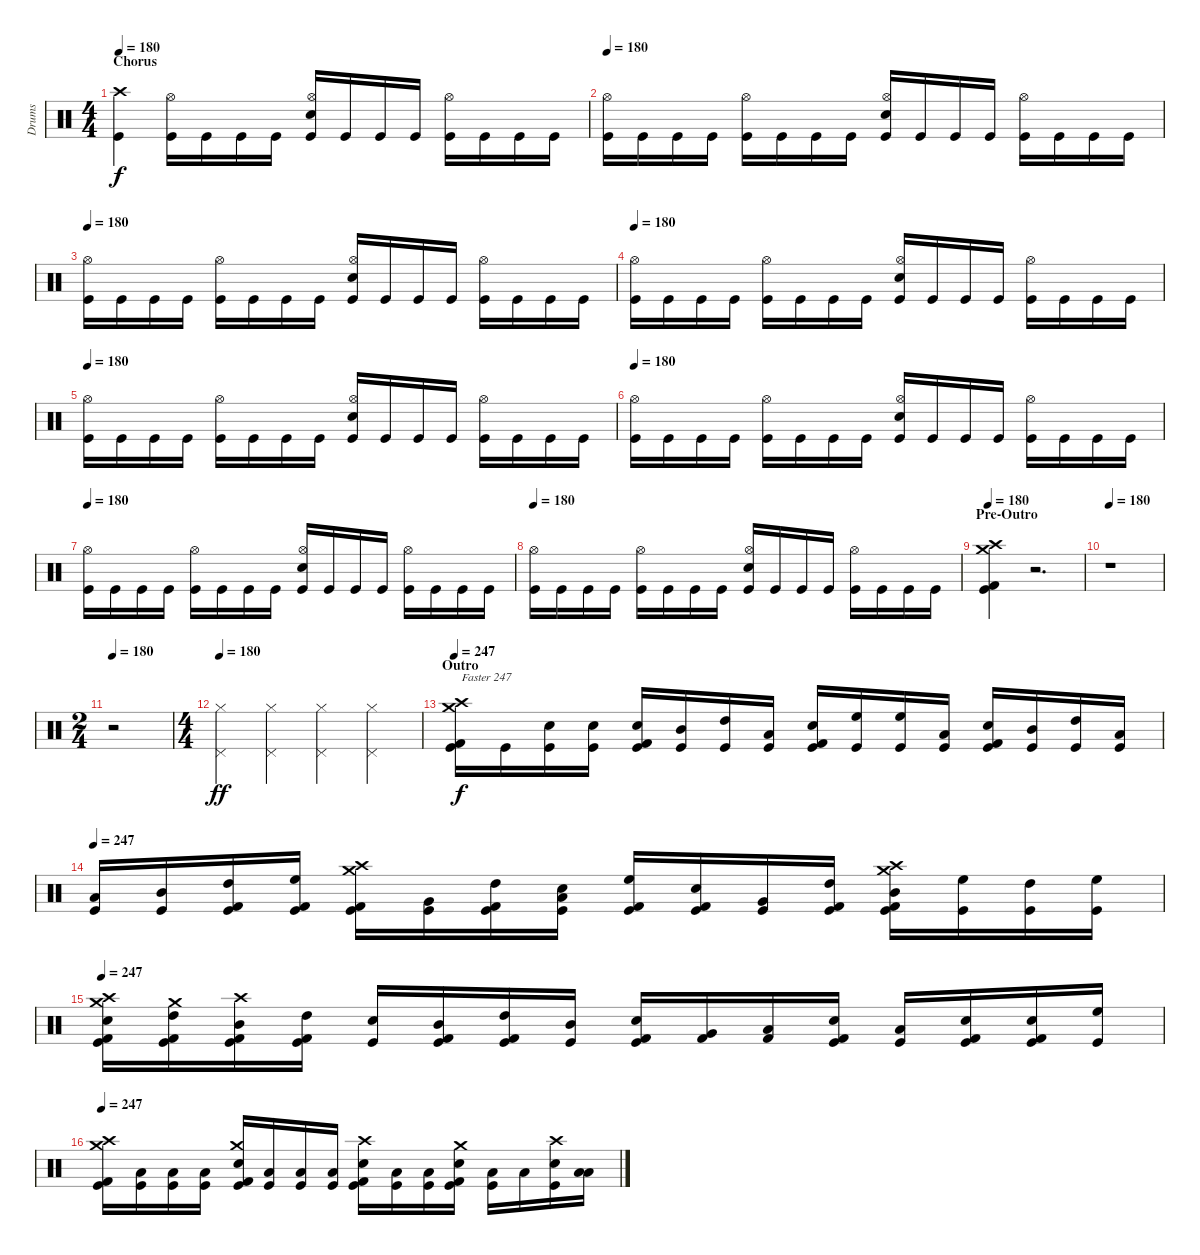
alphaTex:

\track ("Drums" "Drums") {instrument percussion}
\staff {score}
\articulation defaults
\ts (4 4)
\section ("" "Chorus")
\tempo 180
\clef neutral
\ks c
("Crash high (hit)" "Kick (hit)").4{dy f} ("Hi-Hat (open)" "Kick (hit)").16 "Kick (hit)".16 "Kick (hit)".16 "Kick (hit)".16 ("Hi-Hat (open)" "Snare (hit) 2" "Kick (hit)").16 "Kick (hit)".16 "Kick (hit)".16 "Kick (hit)".16 ("Hi-Hat (open)" "Kick (hit)").16 "Kick (hit)".16 "Kick (hit)".16 "Kick (hit)".16 |
\tempo 180
("Hi-Hat (open)" "Kick (hit)").16 "Kick (hit)".16 "Kick (hit)".16 "Kick (hit)".16 ("Hi-Hat (open)" "Kick (hit)").16 "Kick (hit)".16 "Kick (hit)".16 "Kick (hit)".16 ("Hi-Hat (open)" "Snare (hit) 2" "Kick (hit)").16 "Kick (hit)".16 "Kick (hit)".16 "Kick (hit)".16 ("Hi-Hat (open)" "Kick (hit)").16 "Kick (hit)".16 "Kick (hit)".16 "Kick (hit)".16 |
\tempo 180
("Hi-Hat (open)" "Kick (hit)").16 "Kick (hit)".16 "Kick (hit)".16 "Kick (hit)".16 ("Hi-Hat (open)" "Kick (hit)").16 "Kick (hit)".16 "Kick (hit)".16 "Kick (hit)".16 ("Hi-Hat (open)" "Snare (hit) 2" "Kick (hit)").16 "Kick (hit)".16 "Kick (hit)".16 "Kick (hit)".16 ("Hi-Hat (open)" "Kick (hit)").16 "Kick (hit)".16 "Kick (hit)".16 "Kick (hit)".16 |
\tempo 180
("Hi-Hat (open)" "Kick (hit)").16 "Kick (hit)".16 "Kick (hit)".16 "Kick (hit)".16 ("Hi-Hat (open)" "Kick (hit)").16 "Kick (hit)".16 "Kick (hit)".16 "Kick (hit)".16 ("Hi-Hat (open)" "Snare (hit) 2" "Kick (hit)").16 "Kick (hit)".16 "Kick (hit)".16 "Kick (hit)".16 ("Hi-Hat (open)" "Kick (hit)").16 "Kick (hit)".16 "Kick (hit)".16 "Kick (hit)".16 |
\tempo 180
("Hi-Hat (open)" "Kick (hit)").16 "Kick (hit)".16 "Kick (hit)".16 "Kick (hit)".16 ("Hi-Hat (open)" "Kick (hit)").16 "Kick (hit)".16 "Kick (hit)".16 "Kick (hit)".16 ("Hi-Hat (open)" "Snare (hit) 2" "Kick (hit)").16 "Kick (hit)".16 "Kick (hit)".16 "Kick (hit)".16 ("Hi-Hat (open)" "Kick (hit)").16 "Kick (hit)".16 "Kick (hit)".16 "Kick (hit)".16 |
\tempo 180
("Hi-Hat (open)" "Kick (hit)").16 "Kick (hit)".16 "Kick (hit)".16 "Kick (hit)".16 ("Hi-Hat (open)" "Kick (hit)").16 "Kick (hit)".16 "Kick (hit)".16 "Kick (hit)".16 ("Hi-Hat (open)" "Snare (hit) 2" "Kick (hit)").16 "Kick (hit)".16 "Kick (hit)".16 "Kick (hit)".16 ("Hi-Hat (open)" "Kick (hit)").16 "Kick (hit)".16 "Kick (hit)".16 "Kick (hit)".16 |
\tempo 180
("Hi-Hat (open)" "Kick (hit)").16 "Kick (hit)".16 "Kick (hit)".16 "Kick (hit)".16 ("Hi-Hat (open)" "Kick (hit)").16 "Kick (hit)".16 "Kick (hit)".16 "Kick (hit)".16 ("Hi-Hat (open)" "Snare (hit) 2" "Kick (hit)").16 "Kick (hit)".16 "Kick (hit)".16 "Kick (hit)".16 ("Hi-Hat (open)" "Kick (hit)").16 "Kick (hit)".16 "Kick (hit)".16 "Kick (hit)".16 |
\tempo 180
("Hi-Hat (open)" "Kick (hit)").16 "Kick (hit)".16 "Kick (hit)".16 "Kick (hit)".16 ("Hi-Hat (open)" "Kick (hit)").16 "Kick (hit)".16 "Kick (hit)".16 "Kick (hit)".16 ("Hi-Hat (open)" "Snare (hit) 2" "Kick (hit)").16 "Kick (hit)".16 "Kick (hit)".16 "Kick (hit)".16 ("Hi-Hat (open)" "Kick (hit)").16 "Kick (hit)".16 "Kick (hit)".16 "Kick (hit)".16 |
\section ("" "Pre-Outro")
\tempo 180
("Crash high (hit)" "Crash medium (hit)" "Kick (hit) 2" "Kick (hit)").4 r.2{d} |
\tempo 180
r.1 |
\ts (2 4)
\tempo 180
r.2 |
\ts (4 4)
\tempo 180
("Hi-Hat (closed)" "Pedal Hi-Hat (hit)").4{dy ff} ("Hi-Hat (closed)" "Pedal Hi-Hat (hit)").4 ("Hi-Hat (closed)" "Pedal Hi-Hat (hit)").4 ("Hi-Hat (closed)" "Pedal Hi-Hat (hit)").4 |
\section ("" "Outro")
\tempo 247
("Crash high (hit)" "Crash medium (hit)" "Kick (hit) 2" "Kick (hit)").16{txt "Faster 247" dy f} "Kick (hit)".16 ("Snare (hit) 2" "Kick (hit)").16 ("Snare (hit) 2" "Kick (hit)").16 ("Snare (hit) 2" "Kick (hit) 2" "Kick (hit)").16 ("Mid Tom (hit)" "Kick (hit)").16 ("High Tom (hit)" "Kick (hit)").16 ("Low Tom (hit)" "Kick (hit)").16 ("Snare (hit) 2" "Kick (hit) 2" "Kick (hit)").16 ("High Floor Tom (hit)" "Kick (hit)").16 ("High Floor Tom (hit)" "Kick (hit)").16 ("Low Tom (hit)" "Kick (hit)").16 ("Snare (hit) 2" "Kick (hit) 2" "Kick (hit)").16 ("Mid Tom (hit)" "Kick (hit)").16 ("High Tom (hit)" "Kick (hit)").16 ("Low Tom (hit)" "Kick (hit)").16 |
\tempo 247
("Low Tom (hit)" "Kick (hit)").16 ("Mid Tom (hit)" "Kick (hit)").16 ("High Tom (hit)" "Kick (hit) 2" "Kick (hit)").16 ("High Floor Tom (hit)" "Kick (hit) 2" "Kick (hit)").16 ("Crash high (hit)" "Crash medium (hit)" "Kick (hit) 2" "Kick (hit)").16 ("Very Low Tom (hit)" "Kick (hit)").16 ("High Tom (hit)" "Kick (hit) 2" "Kick (hit)").16 ("Snare (hit) 2" "Low Floor Tom (hit)" "Kick (hit)").16 ("High Floor Tom (hit)" "Kick (hit) 2" "Kick (hit)").16 ("Snare (hit) 2" "Kick (hit) 2" "Kick (hit)").16 ("Very Low Tom (hit)" "Kick (hit)").16 ("High Tom (hit)" "Kick (hit) 2" "Kick (hit)").16 ("Crash high (hit)" "Crash medium (hit)" "Mid Tom (hit)" "Kick (hit) 2" "Kick (hit)").16 ("High Floor Tom (hit)" "Kick (hit)").16 ("High Tom (hit)" "Kick (hit)").16 ("High Floor Tom (hit)" "Kick (hit)").16 |
\tempo 247
("Crash high (hit)" "Crash medium (hit)" "Snare (hit) 2" "Kick (hit) 2" "Kick (hit)").16 ("Crash medium (hit)" "High Tom (hit)" "Kick (hit) 2" "Kick (hit)").16 ("Crash high (hit)" "Mid Tom (hit)" "Kick (hit) 2" "Kick (hit)").16 ("High Tom (hit)" "Kick (hit) 2" "Kick (hit)").16 ("Snare (hit) 2" "Kick (hit)").16 ("Mid Tom (hit)" "Kick (hit) 2" "Kick (hit)").16 ("High Tom (hit)" "Kick (hit) 2" "Kick (hit)").16 ("Mid Tom (hit)" "Kick (hit)").16 ("Snare (hit) 2" "Kick (hit) 2" "Kick (hit)").16 ("Kick (hit) 2" "Very Low Tom (hit)").16 ("Kick (hit) 2" "Low Floor Tom (hit)").16 ("Snare (hit) 2" "Kick (hit) 2" "Kick (hit)").16 ("Low Tom (hit)" "Kick (hit)").16 ("Snare (hit) 2" "Kick (hit) 2" "Kick (hit)").16 ("Snare (hit) 2" "Kick (hit) 2" "Kick (hit)").16 ("High Floor Tom (hit)" "Kick (hit)").16 |
\tempo 247
("Crash high (hit)" "Crash medium (hit)" "Kick (hit) 2" "Kick (hit)").16 ("Low Tom (hit)" "Kick (hit)").16 ("Low Tom (hit)" "Kick (hit)").16 ("Low Tom (hit)" "Kick (hit)").16 ("Crash medium (hit)" "Snare (hit) 2" "Kick (hit) 2" "Kick (hit)").16 ("Low Tom (hit)" "Kick (hit)").16 ("Low Tom (hit)" "Kick (hit)").16 ("Low Tom (hit)" "Kick (hit)").16 ("Crash high (hit)" "Snare (hit) 2" "Kick (hit) 2" "Kick (hit)").16 ("Low Tom (hit)" "Kick (hit)").16 ("Low Tom (hit)" "Kick (hit)").16 ("Crash medium (hit)" "Snare (hit) 2" "Kick (hit) 2" "Kick (hit)").16 ("Low Tom (hit)" "Kick (hit)").16 "Low Floor Tom (hit)".16 ("Crash high (hit)" "Snare (hit) 2" "Kick (hit)").16 ("Low Tom (hit)" "Low Floor Tom (hit)").16
